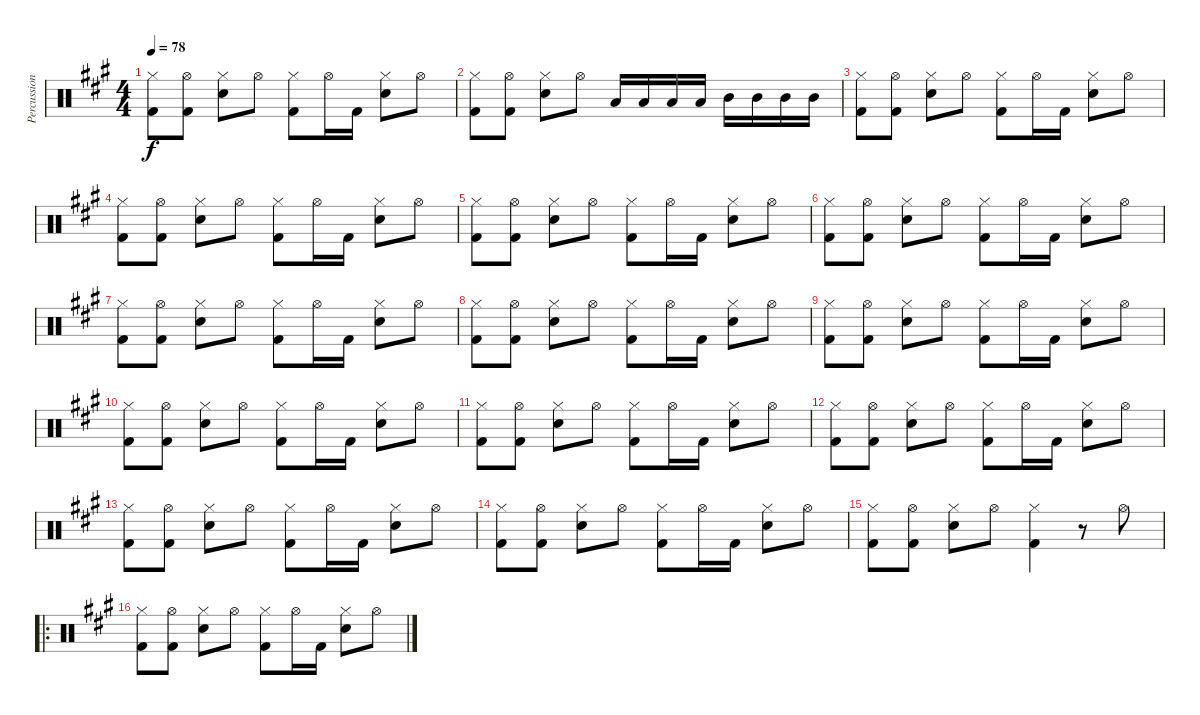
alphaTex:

\track ("Percussions" "Percussion") {instrument percussion}
\staff {score}
\articulation defaults
\ts (4 4)
\tempo 78
\clef neutral
\ks a
("Hi-Hat (closed)" "Kick (hit) 2").8{dy f} ("Hi-Hat (open)" "Kick (hit) 2").8 ("Hi-Hat (closed)" "Snare (hit) 2").8 "Hi-Hat (open)".8 ("Hi-Hat (closed)" "Kick (hit) 2").8 "Hi-Hat (open)".16 "Kick (hit) 2".16 ("Hi-Hat (closed)" "Snare (hit) 2").8 "Hi-Hat (open)".8 |
("Hi-Hat (closed)" "Kick (hit) 2").8 ("Hi-Hat (open)" "Kick (hit) 2").8 ("Hi-Hat (closed)" "Snare (hit) 2").8 "Hi-Hat (open)".8 "Low Floor Tom (hit)".16 "Low Floor Tom (hit)".16 "Low Floor Tom (hit)".16 "Low Floor Tom (hit)".16 "Mid Tom (hit)".16 "Mid Tom (hit)".16 "Mid Tom (hit)".16 "Mid Tom (hit)".16 |
("Hi-Hat (closed)" "Kick (hit) 2").8 ("Hi-Hat (open)" "Kick (hit) 2").8 ("Hi-Hat (closed)" "Snare (hit) 2").8 "Hi-Hat (open)".8 ("Hi-Hat (closed)" "Kick (hit) 2").8 "Hi-Hat (open)".16 "Kick (hit) 2".16 ("Hi-Hat (closed)" "Snare (hit) 2").8 "Hi-Hat (open)".8 |
("Hi-Hat (closed)" "Kick (hit) 2").8 ("Hi-Hat (open)" "Kick (hit) 2").8 ("Hi-Hat (closed)" "Snare (hit) 2").8 "Hi-Hat (open)".8 ("Hi-Hat (closed)" "Kick (hit) 2").8 "Hi-Hat (open)".16 "Kick (hit) 2".16 ("Hi-Hat (closed)" "Snare (hit) 2").8 "Hi-Hat (open)".8 |
("Hi-Hat (closed)" "Kick (hit) 2").8 ("Hi-Hat (open)" "Kick (hit) 2").8 ("Hi-Hat (closed)" "Snare (hit) 2").8 "Hi-Hat (open)".8 ("Hi-Hat (closed)" "Kick (hit) 2").8 "Hi-Hat (open)".16 "Kick (hit) 2".16 ("Hi-Hat (closed)" "Snare (hit) 2").8 "Hi-Hat (open)".8 |
("Hi-Hat (closed)" "Kick (hit) 2").8 ("Hi-Hat (open)" "Kick (hit) 2").8 ("Hi-Hat (closed)" "Snare (hit) 2").8 "Hi-Hat (open)".8 ("Hi-Hat (closed)" "Kick (hit) 2").8 "Hi-Hat (open)".16 "Kick (hit) 2".16 ("Hi-Hat (closed)" "Snare (hit) 2").8 "Hi-Hat (open)".8 |
("Hi-Hat (closed)" "Kick (hit) 2").8 ("Hi-Hat (open)" "Kick (hit) 2").8 ("Hi-Hat (closed)" "Snare (hit) 2").8 "Hi-Hat (open)".8 ("Hi-Hat (closed)" "Kick (hit) 2").8 "Hi-Hat (open)".16 "Kick (hit) 2".16 ("Hi-Hat (closed)" "Snare (hit) 2").8 "Hi-Hat (open)".8 |
("Hi-Hat (closed)" "Kick (hit) 2").8 ("Hi-Hat (open)" "Kick (hit) 2").8 ("Hi-Hat (closed)" "Snare (hit) 2").8 "Hi-Hat (open)".8 ("Hi-Hat (closed)" "Kick (hit) 2").8 "Hi-Hat (open)".16 "Kick (hit) 2".16 ("Hi-Hat (closed)" "Snare (hit) 2").8 "Hi-Hat (open)".8 |
("Hi-Hat (closed)" "Kick (hit) 2").8 ("Hi-Hat (open)" "Kick (hit) 2").8 ("Hi-Hat (closed)" "Snare (hit) 2").8 "Hi-Hat (open)".8 ("Hi-Hat (closed)" "Kick (hit) 2").8 "Hi-Hat (open)".16 "Kick (hit) 2".16 ("Hi-Hat (closed)" "Snare (hit) 2").8 "Hi-Hat (open)".8 |
("Hi-Hat (closed)" "Kick (hit) 2").8 ("Hi-Hat (open)" "Kick (hit) 2").8 ("Hi-Hat (closed)" "Snare (hit) 2").8 "Hi-Hat (open)".8 ("Hi-Hat (closed)" "Kick (hit) 2").8 "Hi-Hat (open)".16 "Kick (hit) 2".16 ("Hi-Hat (closed)" "Snare (hit) 2").8 "Hi-Hat (open)".8 |
("Hi-Hat (closed)" "Kick (hit) 2").8 ("Hi-Hat (open)" "Kick (hit) 2").8 ("Hi-Hat (closed)" "Snare (hit) 2").8 "Hi-Hat (open)".8 ("Hi-Hat (closed)" "Kick (hit) 2").8 "Hi-Hat (open)".16 "Kick (hit) 2".16 ("Hi-Hat (closed)" "Snare (hit) 2").8 "Hi-Hat (open)".8 |
("Hi-Hat (closed)" "Kick (hit) 2").8 ("Hi-Hat (open)" "Kick (hit) 2").8 ("Hi-Hat (closed)" "Snare (hit) 2").8 "Hi-Hat (open)".8 ("Hi-Hat (closed)" "Kick (hit) 2").8 "Hi-Hat (open)".16 "Kick (hit) 2".16 ("Hi-Hat (closed)" "Snare (hit) 2").8 "Hi-Hat (open)".8 |
("Hi-Hat (closed)" "Kick (hit) 2").8 ("Hi-Hat (open)" "Kick (hit) 2").8 ("Hi-Hat (closed)" "Snare (hit) 2").8 "Hi-Hat (open)".8 ("Hi-Hat (closed)" "Kick (hit) 2").8 "Hi-Hat (open)".16 "Kick (hit) 2".16 ("Hi-Hat (closed)" "Snare (hit) 2").8 "Hi-Hat (open)".8 |
("Hi-Hat (closed)" "Kick (hit) 2").8 ("Hi-Hat (open)" "Kick (hit) 2").8 ("Hi-Hat (closed)" "Snare (hit) 2").8 "Hi-Hat (open)".8 ("Hi-Hat (closed)" "Kick (hit) 2").8 "Hi-Hat (open)".16 "Kick (hit) 2".16 ("Hi-Hat (closed)" "Snare (hit) 2").8 "Hi-Hat (open)".8 |
("Hi-Hat (closed)" "Kick (hit) 2").8 ("Hi-Hat (open)" "Kick (hit) 2").8 ("Hi-Hat (closed)" "Snare (hit) 2").8 "Hi-Hat (open)".8 ("Hi-Hat (closed)" "Kick (hit) 2").4 r.8 "Hi-Hat (open)".8 |
\ro
("Hi-Hat (closed)" "Kick (hit) 2").8 ("Hi-Hat (open)" "Kick (hit) 2").8 ("Hi-Hat (closed)" "Snare (hit) 2").8 "Hi-Hat (open)".8 ("Hi-Hat (closed)" "Kick (hit) 2").8 "Hi-Hat (open)".16 "Kick (hit) 2".16 ("Hi-Hat (closed)" "Snare (hit) 2").8 "Hi-Hat (open)".8
